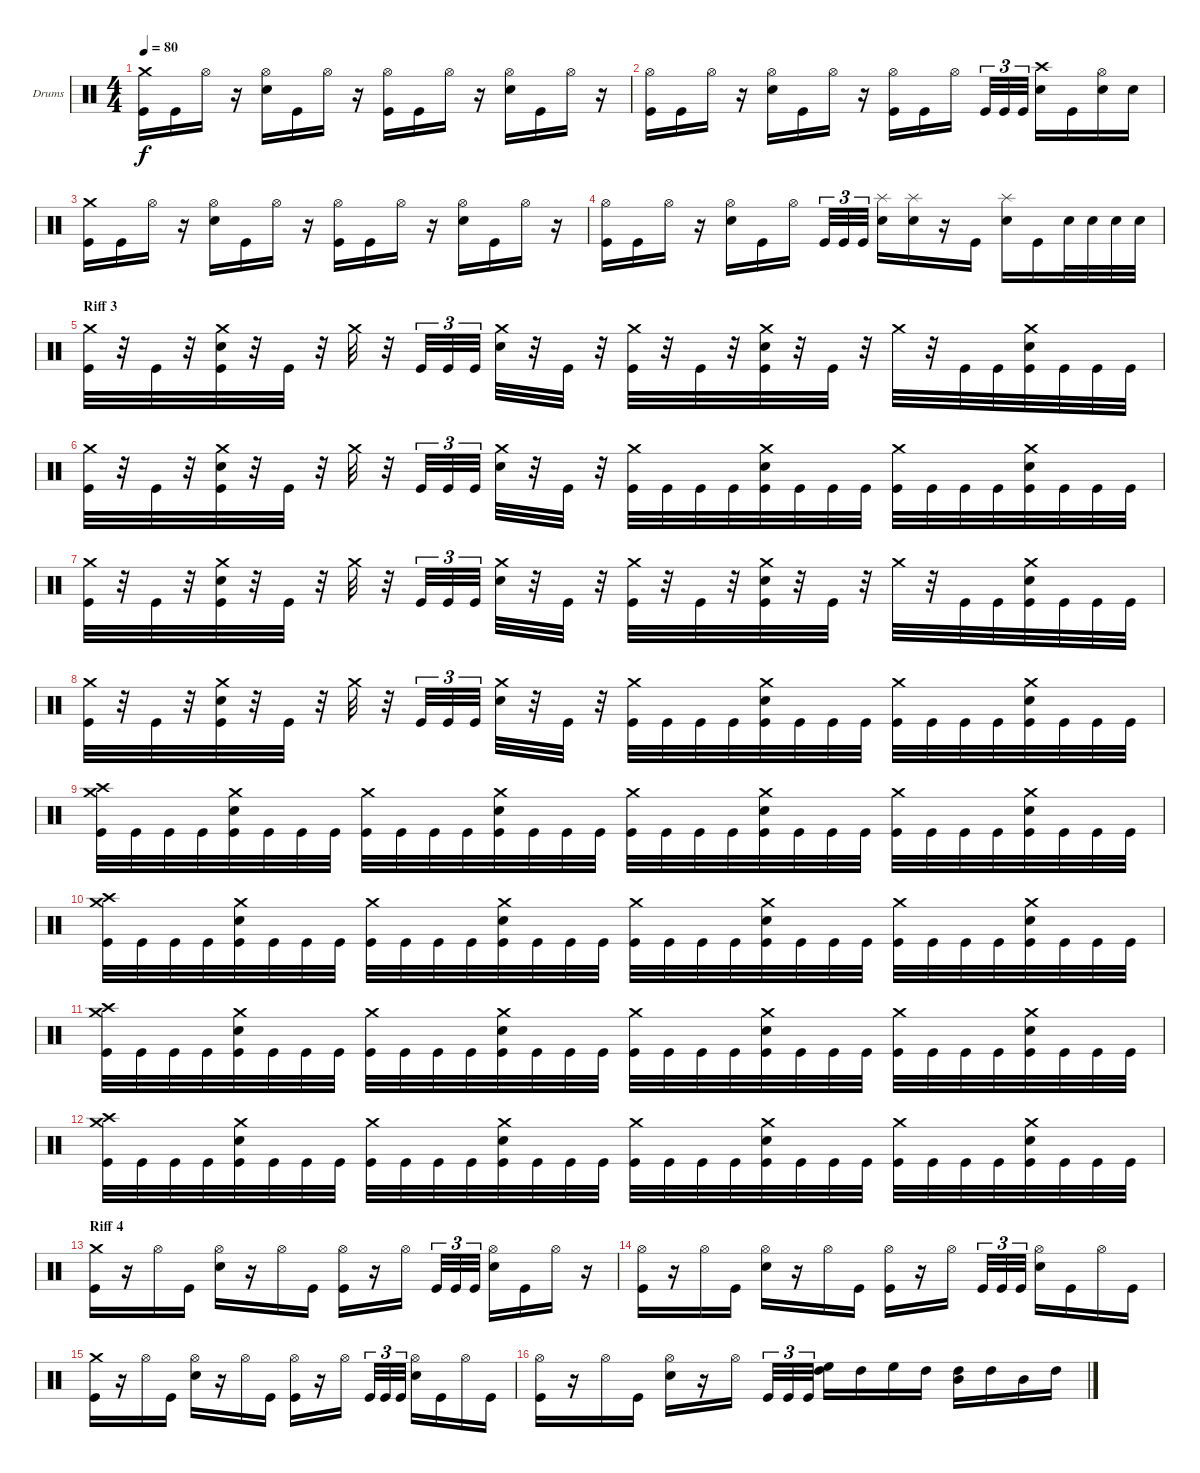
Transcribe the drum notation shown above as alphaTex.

\bracketExtendMode groupsimilarinstruments
\firstSystemTrackNameOrientation horizontal
\otherSystemsTrackNameOrientation horizontal
\track ("Drumkit" "Drums") {instrument percussion}
\staff {score}
\articulation defaults
\ts (4 4)
\tempo 80
\clef neutral
\ks c
("Crash medium (hit)" "Kick (hit)").16{dy f} "Kick (hit)".16 "Hi-Hat (open)".16 r.16 ("Hi-Hat (open)" "Snare (hit) 2").16 "Kick (hit)".16 "Hi-Hat (open)".16 r.16 ("Hi-Hat (open)" "Kick (hit)").16 "Kick (hit)".16 "Hi-Hat (open)".16 r.16 ("Hi-Hat (open)" "Snare (hit) 2").16 "Kick (hit)".16 "Hi-Hat (open)".16 r.16 |
("Hi-Hat (open)" "Kick (hit)").16 "Kick (hit)".16 "Hi-Hat (open)".16 r.16 ("Hi-Hat (open)" "Snare (hit) 2").16 "Kick (hit)".16 "Hi-Hat (open)".16 r.16 ("Hi-Hat (open)" "Kick (hit)").16 "Kick (hit)".16 "Hi-Hat (open)".16 "Kick (hit)".32{tu (3 2)} "Kick (hit)".32{tu (3 2)} "Kick (hit)".32{tu (3 2)} ("Crash high (hit)" "Snare (hit) 2").16 "Kick (hit)".16 ("Hi-Hat (open)" "Snare (hit) 2").16 "Snare (hit) 2".16 |
("Crash medium (hit)" "Kick (hit)").16 "Kick (hit)".16 "Hi-Hat (open)".16 r.16 ("Hi-Hat (open)" "Snare (hit) 2").16 "Kick (hit)".16 "Hi-Hat (open)".16 r.16 ("Hi-Hat (open)" "Kick (hit)").16 "Kick (hit)".16 "Hi-Hat (open)".16 r.16 ("Hi-Hat (open)" "Snare (hit) 2").16 "Kick (hit)".16 "Hi-Hat (open)".16 r.16 |
("Hi-Hat (open)" "Kick (hit)").16 "Kick (hit)".16 "Hi-Hat (open)".16 r.16 ("Hi-Hat (open)" "Snare (hit) 2").16 "Kick (hit)".16 "Hi-Hat (open)".16 "Kick (hit)".32{tu (3 2)} "Kick (hit)".32{tu (3 2)} "Kick (hit)".32{tu (3 2)} ("Splash (hit)" "Snare (hit) 2").16 ("Splash (hit)" "Snare (hit) 2").16 r.16 "Kick (hit)".16 ("Splash (hit)" "Snare (hit) 2").16 "Kick (hit)".16 "Snare (hit) 2".32 "Snare (hit) 2".32 "Snare (hit) 2".32 "Snare (hit) 2".32 |
\section ("" "Riff 3")
("Crash medium (hit)" "Kick (hit)").32 r.32 "Kick (hit)".32 r.32 ("Crash medium (hit)" "Snare (hit) 2" "Kick (hit)").32 r.32 "Kick (hit)".32 r.32 "Crash medium (hit)".32 r.32 "Kick (hit)".32{tu (3 2)} "Kick (hit)".32{tu (3 2)} "Kick (hit)".32{tu (3 2)} ("Crash medium (hit)" "Snare (hit) 2").32 r.32 "Kick (hit)".32 r.32 ("Crash medium (hit)" "Kick (hit)").32 r.32 "Kick (hit)".32 r.32 ("Crash medium (hit)" "Snare (hit) 2" "Kick (hit)").32 r.32 "Kick (hit)".32 r.32 "Crash medium (hit)".32 r.32 "Kick (hit)".32 "Kick (hit)".32 ("Crash medium (hit)" "Snare (hit) 2" "Kick (hit)").32 "Kick (hit)".32 "Kick (hit)".32 "Kick (hit)".32 |
("Crash medium (hit)" "Kick (hit)").32 r.32 "Kick (hit)".32 r.32 ("Crash medium (hit)" "Snare (hit) 2" "Kick (hit)").32 r.32 "Kick (hit)".32 r.32 "Crash medium (hit)".32 r.32 "Kick (hit)".32{tu (3 2)} "Kick (hit)".32{tu (3 2)} "Kick (hit)".32{tu (3 2)} ("Crash medium (hit)" "Snare (hit) 2").32 r.32 "Kick (hit)".32 r.32 ("Crash medium (hit)" "Kick (hit)").32 "Kick (hit)".32 "Kick (hit)".32 "Kick (hit)".32 ("Crash medium (hit)" "Snare (hit) 2" "Kick (hit)").32 "Kick (hit)".32 "Kick (hit)".32 "Kick (hit)".32 ("Crash medium (hit)" "Kick (hit)").32 "Kick (hit)".32 "Kick (hit)".32 "Kick (hit)".32 ("Crash medium (hit)" "Snare (hit) 2" "Kick (hit)").32 "Kick (hit)".32 "Kick (hit)".32 "Kick (hit)".32 |
("Crash medium (hit)" "Kick (hit)").32 r.32 "Kick (hit)".32 r.32 ("Crash medium (hit)" "Snare (hit) 2" "Kick (hit)").32 r.32 "Kick (hit)".32 r.32 "Crash medium (hit)".32 r.32 "Kick (hit)".32{tu (3 2)} "Kick (hit)".32{tu (3 2)} "Kick (hit)".32{tu (3 2)} ("Crash medium (hit)" "Snare (hit) 2").32 r.32 "Kick (hit)".32 r.32 ("Crash medium (hit)" "Kick (hit)").32 r.32 "Kick (hit)".32 r.32 ("Crash medium (hit)" "Snare (hit) 2" "Kick (hit)").32 r.32 "Kick (hit)".32 r.32 "Crash medium (hit)".32 r.32 "Kick (hit)".32 "Kick (hit)".32 ("Crash medium (hit)" "Snare (hit) 2" "Kick (hit)").32 "Kick (hit)".32 "Kick (hit)".32 "Kick (hit)".32 |
("Crash medium (hit)" "Kick (hit)").32 r.32 "Kick (hit)".32 r.32 ("Crash medium (hit)" "Snare (hit) 2" "Kick (hit)").32 r.32 "Kick (hit)".32 r.32 "Crash medium (hit)".32 r.32 "Kick (hit)".32{tu (3 2)} "Kick (hit)".32{tu (3 2)} "Kick (hit)".32{tu (3 2)} ("Crash medium (hit)" "Snare (hit) 2").32 r.32 "Kick (hit)".32 r.32 ("Crash medium (hit)" "Kick (hit)").32 "Kick (hit)".32 "Kick (hit)".32 "Kick (hit)".32 ("Crash medium (hit)" "Snare (hit) 2" "Kick (hit)").32 "Kick (hit)".32 "Kick (hit)".32 "Kick (hit)".32 ("Crash medium (hit)" "Kick (hit)").32 "Kick (hit)".32 "Kick (hit)".32 "Kick (hit)".32 ("Crash medium (hit)" "Snare (hit) 2" "Kick (hit)").32 "Kick (hit)".32 "Kick (hit)".32 "Kick (hit)".32 |
("Crash medium (hit)" "Crash high (hit)" "Kick (hit)").32 "Kick (hit)".32 "Kick (hit)".32 "Kick (hit)".32 ("Crash medium (hit)" "Snare (hit) 2" "Kick (hit)").32 "Kick (hit)".32 "Kick (hit)".32 "Kick (hit)".32 ("Crash medium (hit)" "Kick (hit)").32 "Kick (hit)".32 "Kick (hit)".32 "Kick (hit)".32 ("Crash medium (hit)" "Snare (hit) 2" "Kick (hit)").32 "Kick (hit)".32 "Kick (hit)".32 "Kick (hit)".32 ("Crash medium (hit)" "Kick (hit)").32 "Kick (hit)".32 "Kick (hit)".32 "Kick (hit)".32 ("Crash medium (hit)" "Snare (hit) 2" "Kick (hit)").32 "Kick (hit)".32 "Kick (hit)".32 "Kick (hit)".32 ("Crash medium (hit)" "Kick (hit)").32 "Kick (hit)".32 "Kick (hit)".32 "Kick (hit)".32 ("Crash medium (hit)" "Snare (hit) 2" "Kick (hit)").32 "Kick (hit)".32 "Kick (hit)".32 "Kick (hit)".32 |
("Crash medium (hit)" "Crash high (hit)" "Kick (hit)").32 "Kick (hit)".32 "Kick (hit)".32 "Kick (hit)".32 ("Crash medium (hit)" "Snare (hit) 2" "Kick (hit)").32 "Kick (hit)".32 "Kick (hit)".32 "Kick (hit)".32 ("Crash medium (hit)" "Kick (hit)").32 "Kick (hit)".32 "Kick (hit)".32 "Kick (hit)".32 ("Crash medium (hit)" "Snare (hit) 2" "Kick (hit)").32 "Kick (hit)".32 "Kick (hit)".32 "Kick (hit)".32 ("Crash medium (hit)" "Kick (hit)").32 "Kick (hit)".32 "Kick (hit)".32 "Kick (hit)".32 ("Crash medium (hit)" "Snare (hit) 2" "Kick (hit)").32 "Kick (hit)".32 "Kick (hit)".32 "Kick (hit)".32 ("Crash medium (hit)" "Kick (hit)").32 "Kick (hit)".32 "Kick (hit)".32 "Kick (hit)".32 ("Crash medium (hit)" "Snare (hit) 2" "Kick (hit)").32 "Kick (hit)".32 "Kick (hit)".32 "Kick (hit)".32 |
("Crash medium (hit)" "Crash high (hit)" "Kick (hit)").32 "Kick (hit)".32 "Kick (hit)".32 "Kick (hit)".32 ("Crash medium (hit)" "Snare (hit) 2" "Kick (hit)").32 "Kick (hit)".32 "Kick (hit)".32 "Kick (hit)".32 ("Crash medium (hit)" "Kick (hit)").32 "Kick (hit)".32 "Kick (hit)".32 "Kick (hit)".32 ("Crash medium (hit)" "Snare (hit) 2" "Kick (hit)").32 "Kick (hit)".32 "Kick (hit)".32 "Kick (hit)".32 ("Crash medium (hit)" "Kick (hit)").32 "Kick (hit)".32 "Kick (hit)".32 "Kick (hit)".32 ("Crash medium (hit)" "Snare (hit) 2" "Kick (hit)").32 "Kick (hit)".32 "Kick (hit)".32 "Kick (hit)".32 ("Crash medium (hit)" "Kick (hit)").32 "Kick (hit)".32 "Kick (hit)".32 "Kick (hit)".32 ("Crash medium (hit)" "Snare (hit) 2" "Kick (hit)").32 "Kick (hit)".32 "Kick (hit)".32 "Kick (hit)".32 |
("Crash medium (hit)" "Crash high (hit)" "Kick (hit)").32 "Kick (hit)".32 "Kick (hit)".32 "Kick (hit)".32 ("Crash medium (hit)" "Snare (hit) 2" "Kick (hit)").32 "Kick (hit)".32 "Kick (hit)".32 "Kick (hit)".32 ("Crash medium (hit)" "Kick (hit)").32 "Kick (hit)".32 "Kick (hit)".32 "Kick (hit)".32 ("Crash medium (hit)" "Snare (hit) 2" "Kick (hit)").32 "Kick (hit)".32 "Kick (hit)".32 "Kick (hit)".32 ("Crash medium (hit)" "Kick (hit)").32 "Kick (hit)".32 "Kick (hit)".32 "Kick (hit)".32 ("Crash medium (hit)" "Snare (hit) 2" "Kick (hit)").32 "Kick (hit)".32 "Kick (hit)".32 "Kick (hit)".32 ("Crash medium (hit)" "Kick (hit)").32 "Kick (hit)".32 "Kick (hit)".32 "Kick (hit)".32 ("Crash medium (hit)" "Snare (hit) 2" "Kick (hit)").32 "Kick (hit)".32 "Kick (hit)".32 "Kick (hit)".32 |
\section ("" "Riff 4")
("Crash medium (hit)" "Kick (hit)").16 r.16 "Hi-Hat (open)".16 "Kick (hit)".16 ("Hi-Hat (open)" "Snare (hit) 2").16 r.16 "Hi-Hat (open)".16 "Kick (hit)".16 ("Hi-Hat (open)" "Kick (hit)").16 r.16 "Hi-Hat (open)".16 "Kick (hit)".32{tu (3 2)} "Kick (hit)".32{tu (3 2)} "Kick (hit)".32{tu (3 2)} ("Hi-Hat (open)" "Snare (hit) 2").16 "Kick (hit)".16 "Hi-Hat (open)".16 r.16 |
("Hi-Hat (open)" "Kick (hit)").16 r.16 "Hi-Hat (open)".16 "Kick (hit)".16 ("Hi-Hat (open)" "Snare (hit) 2").16 r.16 "Hi-Hat (open)".16 "Kick (hit)".16 ("Hi-Hat (open)" "Kick (hit)").16 r.16 "Hi-Hat (open)".16 "Kick (hit)".32{tu (3 2)} "Kick (hit)".32{tu (3 2)} "Kick (hit)".32{tu (3 2)} ("Hi-Hat (open)" "Snare (hit) 2").16 "Kick (hit)".16 "Hi-Hat (open)".16 "Kick (hit)".16 |
("Crash medium (hit)" "Kick (hit)").16 r.16 "Hi-Hat (open)".16 "Kick (hit)".16 ("Hi-Hat (open)" "Snare (hit) 2").16 r.16 "Hi-Hat (open)".16 "Kick (hit)".16 ("Hi-Hat (open)" "Kick (hit)").16 r.16 "Hi-Hat (open)".16 "Kick (hit)".32{tu (3 2)} "Kick (hit)".32{tu (3 2)} "Kick (hit)".32{tu (3 2)} ("Hi-Hat (open)" "Snare (hit) 2").16 "Kick (hit)".16 "Hi-Hat (open)".16 "Kick (hit)".16 |
("Hi-Hat (open)" "Kick (hit)").16 r.16 "Hi-Hat (open)".16 "Kick (hit)".16 ("Hi-Hat (open)" "Snare (hit) 2").16 r.16 "Hi-Hat (open)".16 "Kick (hit)".32{tu (3 2)} "Kick (hit)".32{tu (3 2)} "Kick (hit)".32{tu (3 2)} ("High Floor Tom (hit)" "High Tom (hit)").16 "High Tom (hit)".16 "High Floor Tom (hit)".16 "High Tom (hit)".16 ("High Tom (hit)" "Mid Tom (hit)").16 "High Tom (hit)".16 "Mid Tom (hit)".16 "High Tom (hit)".16
